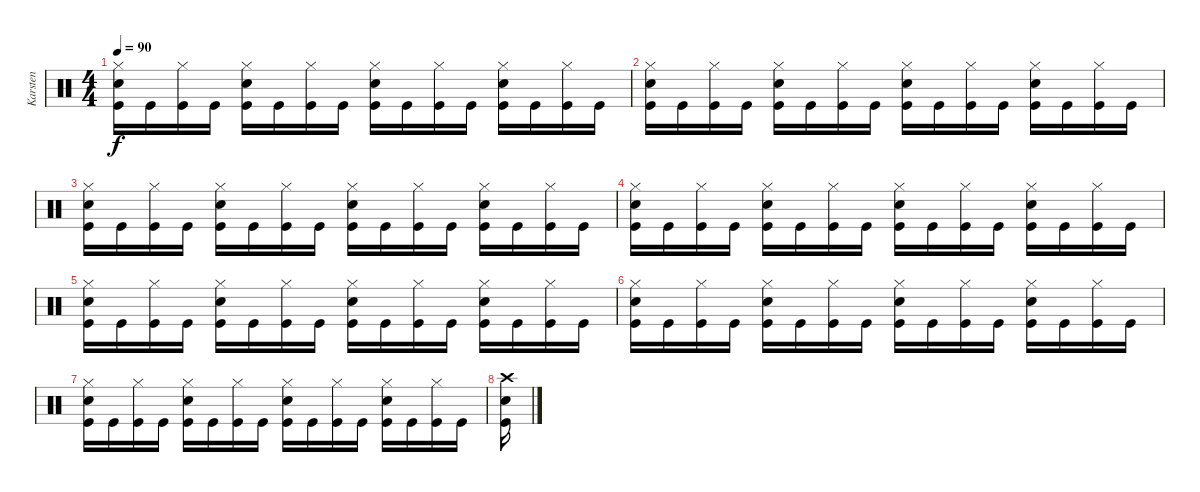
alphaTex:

\track ("Karsten" "Karsten") {instrument percussion}
\staff {score}
\articulation defaults
\ts (4 4)
\tempo 90
\clef neutral
\ks c
("Hi-Hat (closed)" "Snare (hit) 2" "Kick (hit)").16{dy f} "Kick (hit)".16 ("Hi-Hat (closed)" "Kick (hit)").16 "Kick (hit)".16 ("Hi-Hat (closed)" "Snare (hit) 2" "Kick (hit)").16 "Kick (hit)".16 ("Hi-Hat (closed)" "Kick (hit)").16 "Kick (hit)".16 ("Hi-Hat (closed)" "Snare (hit) 2" "Kick (hit)").16 "Kick (hit)".16 ("Hi-Hat (closed)" "Kick (hit)").16 "Kick (hit)".16 ("Hi-Hat (closed)" "Snare (hit) 2" "Kick (hit)").16 "Kick (hit)".16 ("Hi-Hat (closed)" "Kick (hit)").16 "Kick (hit)".16 |
("Hi-Hat (closed)" "Snare (hit) 2" "Kick (hit)").16 "Kick (hit)".16 ("Hi-Hat (closed)" "Kick (hit)").16 "Kick (hit)".16 ("Hi-Hat (closed)" "Snare (hit) 2" "Kick (hit)").16 "Kick (hit)".16 ("Hi-Hat (closed)" "Kick (hit)").16 "Kick (hit)".16 ("Hi-Hat (closed)" "Snare (hit) 2" "Kick (hit)").16 "Kick (hit)".16 ("Hi-Hat (closed)" "Kick (hit)").16 "Kick (hit)".16 ("Hi-Hat (closed)" "Snare (hit) 2" "Kick (hit)").16 "Kick (hit)".16 ("Hi-Hat (closed)" "Kick (hit)").16 "Kick (hit)".16 |
("Hi-Hat (closed)" "Snare (hit) 2" "Kick (hit)").16 "Kick (hit)".16 ("Hi-Hat (closed)" "Kick (hit)").16 "Kick (hit)".16 ("Hi-Hat (closed)" "Snare (hit) 2" "Kick (hit)").16 "Kick (hit)".16 ("Hi-Hat (closed)" "Kick (hit)").16 "Kick (hit)".16 ("Hi-Hat (closed)" "Snare (hit) 2" "Kick (hit)").16 "Kick (hit)".16 ("Hi-Hat (closed)" "Kick (hit)").16 "Kick (hit)".16 ("Hi-Hat (closed)" "Snare (hit) 2" "Kick (hit)").16 "Kick (hit)".16 ("Hi-Hat (closed)" "Kick (hit)").16 "Kick (hit)".16 |
("Hi-Hat (closed)" "Snare (hit) 2" "Kick (hit)").16 "Kick (hit)".16 ("Hi-Hat (closed)" "Kick (hit)").16 "Kick (hit)".16 ("Hi-Hat (closed)" "Snare (hit) 2" "Kick (hit)").16 "Kick (hit)".16 ("Hi-Hat (closed)" "Kick (hit)").16 "Kick (hit)".16 ("Hi-Hat (closed)" "Snare (hit) 2" "Kick (hit)").16 "Kick (hit)".16 ("Hi-Hat (closed)" "Kick (hit)").16 "Kick (hit)".16 ("Hi-Hat (closed)" "Snare (hit) 2" "Kick (hit)").16 "Kick (hit)".16 ("Hi-Hat (closed)" "Kick (hit)").16 "Kick (hit)".16 |
("Hi-Hat (closed)" "Snare (hit) 2" "Kick (hit)").16 "Kick (hit)".16 ("Hi-Hat (closed)" "Kick (hit)").16 "Kick (hit)".16 ("Hi-Hat (closed)" "Snare (hit) 2" "Kick (hit)").16 "Kick (hit)".16 ("Hi-Hat (closed)" "Kick (hit)").16 "Kick (hit)".16 ("Hi-Hat (closed)" "Snare (hit) 2" "Kick (hit)").16 "Kick (hit)".16 ("Hi-Hat (closed)" "Kick (hit)").16 "Kick (hit)".16 ("Hi-Hat (closed)" "Snare (hit) 2" "Kick (hit)").16 "Kick (hit)".16 ("Hi-Hat (closed)" "Kick (hit)").16 "Kick (hit)".16 |
("Hi-Hat (closed)" "Snare (hit) 2" "Kick (hit)").16 "Kick (hit)".16 ("Hi-Hat (closed)" "Kick (hit)").16 "Kick (hit)".16 ("Hi-Hat (closed)" "Snare (hit) 2" "Kick (hit)").16 "Kick (hit)".16 ("Hi-Hat (closed)" "Kick (hit)").16 "Kick (hit)".16 ("Hi-Hat (closed)" "Snare (hit) 2" "Kick (hit)").16 "Kick (hit)".16 ("Hi-Hat (closed)" "Kick (hit)").16 "Kick (hit)".16 ("Hi-Hat (closed)" "Snare (hit) 2" "Kick (hit)").16 "Kick (hit)".16 ("Hi-Hat (closed)" "Kick (hit)").16 "Kick (hit)".16 |
("Hi-Hat (closed)" "Snare (hit) 2" "Kick (hit)").16 "Kick (hit)".16 ("Hi-Hat (closed)" "Kick (hit)").16 "Kick (hit)".16 ("Hi-Hat (closed)" "Snare (hit) 2" "Kick (hit)").16 "Kick (hit)".16 ("Hi-Hat (closed)" "Kick (hit)").16 "Kick (hit)".16 ("Hi-Hat (closed)" "Snare (hit) 2" "Kick (hit)").16 "Kick (hit)".16 ("Hi-Hat (closed)" "Kick (hit)").16 "Kick (hit)".16 ("Hi-Hat (closed)" "Snare (hit) 2" "Kick (hit)").16 "Kick (hit)".16 ("Hi-Hat (closed)" "Kick (hit)").16 "Kick (hit)".16 |
("Crash high (hit)" "Snare (hit) 2" "Kick (hit)").16
